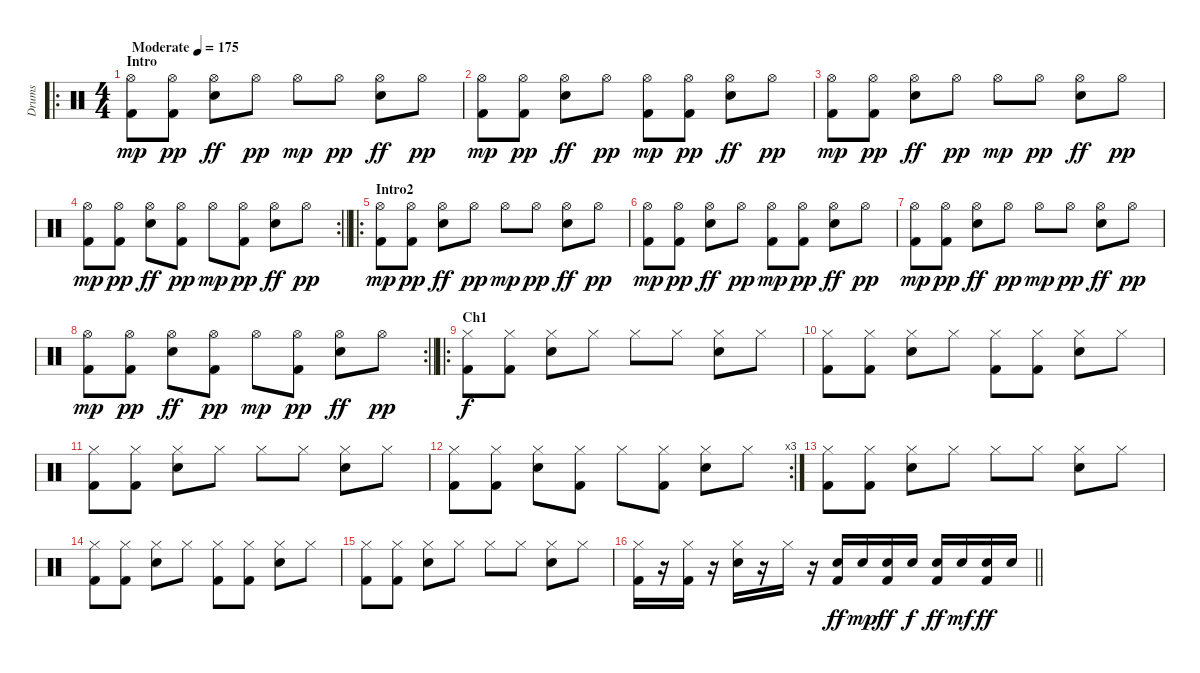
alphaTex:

\track ("Drums" "Drums") {instrument percussion}
\staff {score}
\articulation defaults
\ro
\ts (4 4)
\section ("" "Intro")
\tempo (175 "Moderate")
\clef neutral
\ks c
("Hi-Hat (open)" "Kick (hit) 2").8{dy mp} ("Hi-Hat (open)" "Kick (hit) 2").8{dy pp} ("Hi-Hat (open)" "Electric Snare (hit)").8{dy ff} "Hi-Hat (open)".8{dy pp} "Hi-Hat (open)".8{dy mp} "Hi-Hat (open)".8{dy pp} ("Hi-Hat (open)" "Electric Snare (hit)").8{dy ff} "Hi-Hat (open)".8{dy pp} |
("Hi-Hat (open)" "Kick (hit) 2").8{dy mp} ("Hi-Hat (open)" "Kick (hit) 2").8{dy pp} ("Hi-Hat (open)" "Electric Snare (hit)").8{dy ff} "Hi-Hat (open)".8{dy pp} ("Hi-Hat (open)" "Kick (hit) 2").8{dy mp} ("Hi-Hat (open)" "Kick (hit) 2").8{dy pp} ("Hi-Hat (open)" "Electric Snare (hit)").8{dy ff} "Hi-Hat (open)".8{dy pp} |
("Hi-Hat (open)" "Kick (hit) 2").8{dy mp} ("Hi-Hat (open)" "Kick (hit) 2").8{dy pp} ("Hi-Hat (open)" "Electric Snare (hit)").8{dy ff} "Hi-Hat (open)".8{dy pp} "Hi-Hat (open)".8{dy mp} "Hi-Hat (open)".8{dy pp} ("Hi-Hat (open)" "Electric Snare (hit)").8{dy ff} "Hi-Hat (open)".8{dy pp} |
\rc 2
\barLineRight lightlight
("Hi-Hat (open)" "Kick (hit) 2").8{dy mp} ("Hi-Hat (open)" "Kick (hit) 2").8{dy pp} ("Hi-Hat (open)" "Electric Snare (hit)").8{dy ff} ("Hi-Hat (open)" "Kick (hit) 2").8{dy pp} "Hi-Hat (open)".8{dy mp} ("Hi-Hat (open)" "Kick (hit) 2").8{dy pp} ("Hi-Hat (open)" "Electric Snare (hit)").8{dy ff} "Hi-Hat (open)".8{dy pp} |
\ro
\section ("" "Intro2")
("Hi-Hat (open)" "Kick (hit) 2").8{dy mp} ("Hi-Hat (open)" "Kick (hit) 2").8{dy pp} ("Hi-Hat (open)" "Electric Snare (hit)").8{dy ff} "Hi-Hat (open)".8{dy pp} "Hi-Hat (open)".8{dy mp} "Hi-Hat (open)".8{dy pp} ("Hi-Hat (open)" "Electric Snare (hit)").8{dy ff} "Hi-Hat (open)".8{dy pp} |
("Hi-Hat (open)" "Kick (hit) 2").8{dy mp} ("Hi-Hat (open)" "Kick (hit) 2").8{dy pp} ("Hi-Hat (open)" "Electric Snare (hit)").8{dy ff} "Hi-Hat (open)".8{dy pp} ("Hi-Hat (open)" "Kick (hit) 2").8{dy mp} ("Hi-Hat (open)" "Kick (hit) 2").8{dy pp} ("Hi-Hat (open)" "Electric Snare (hit)").8{dy ff} "Hi-Hat (open)".8{dy pp} |
("Hi-Hat (open)" "Kick (hit) 2").8{dy mp} ("Hi-Hat (open)" "Kick (hit) 2").8{dy pp} ("Hi-Hat (open)" "Electric Snare (hit)").8{dy ff} "Hi-Hat (open)".8{dy pp} "Hi-Hat (open)".8{dy mp} "Hi-Hat (open)".8{dy pp} ("Hi-Hat (open)" "Electric Snare (hit)").8{dy ff} "Hi-Hat (open)".8{dy pp} |
\rc 2
\barLineRight lightlight
("Hi-Hat (open)" "Kick (hit) 2").8{dy mp} ("Hi-Hat (open)" "Kick (hit) 2").8{dy pp} ("Hi-Hat (open)" "Electric Snare (hit)").8{dy ff} ("Hi-Hat (open)" "Kick (hit) 2").8{dy pp} "Hi-Hat (open)".8{dy mp} ("Hi-Hat (open)" "Kick (hit) 2").8{dy pp} ("Hi-Hat (open)" "Electric Snare (hit)").8{dy ff} "Hi-Hat (open)".8{dy pp} |
\ro
\section ("" "Ch1")
("Hi-Hat (closed)" "Kick (hit) 2").8{dy f} ("Hi-Hat (closed)" "Kick (hit) 2").8 ("Hi-Hat (closed)" "Electric Snare (hit)").8 "Hi-Hat (closed)".8 "Hi-Hat (closed)".8 "Hi-Hat (closed)".8 ("Hi-Hat (closed)" "Electric Snare (hit)").8 "Hi-Hat (closed)".8 |
("Hi-Hat (closed)" "Kick (hit) 2").8 ("Hi-Hat (closed)" "Kick (hit) 2").8 ("Hi-Hat (closed)" "Electric Snare (hit)").8 "Hi-Hat (closed)".8 ("Hi-Hat (closed)" "Kick (hit) 2").8 ("Hi-Hat (closed)" "Kick (hit) 2").8 ("Hi-Hat (closed)" "Electric Snare (hit)").8 "Hi-Hat (closed)".8 |
("Hi-Hat (closed)" "Kick (hit) 2").8 ("Hi-Hat (closed)" "Kick (hit) 2").8 ("Hi-Hat (closed)" "Electric Snare (hit)").8 "Hi-Hat (closed)".8 "Hi-Hat (closed)".8 "Hi-Hat (closed)".8 ("Hi-Hat (closed)" "Electric Snare (hit)").8 "Hi-Hat (closed)".8 |
\rc 3
("Hi-Hat (closed)" "Kick (hit) 2").8 ("Hi-Hat (closed)" "Kick (hit) 2").8 ("Hi-Hat (closed)" "Electric Snare (hit)").8 ("Hi-Hat (closed)" "Kick (hit) 2").8 "Hi-Hat (closed)".8 ("Hi-Hat (closed)" "Kick (hit) 2").8 ("Hi-Hat (closed)" "Electric Snare (hit)").8 "Hi-Hat (closed)".8 |
("Hi-Hat (closed)" "Kick (hit) 2").8 ("Hi-Hat (closed)" "Kick (hit) 2").8 ("Hi-Hat (closed)" "Electric Snare (hit)").8 "Hi-Hat (closed)".8 "Hi-Hat (closed)".8 "Hi-Hat (closed)".8 ("Hi-Hat (closed)" "Electric Snare (hit)").8 "Hi-Hat (closed)".8 |
("Hi-Hat (closed)" "Kick (hit) 2").8 ("Hi-Hat (closed)" "Kick (hit) 2").8 ("Hi-Hat (closed)" "Electric Snare (hit)").8 "Hi-Hat (closed)".8 ("Hi-Hat (closed)" "Kick (hit) 2").8 ("Hi-Hat (closed)" "Kick (hit) 2").8 ("Hi-Hat (closed)" "Electric Snare (hit)").8 "Hi-Hat (closed)".8 |
("Hi-Hat (closed)" "Kick (hit) 2").8 ("Hi-Hat (closed)" "Kick (hit) 2").8 ("Hi-Hat (closed)" "Electric Snare (hit)").8 "Hi-Hat (closed)".8 "Hi-Hat (closed)".8 "Hi-Hat (closed)".8 ("Hi-Hat (closed)" "Electric Snare (hit)").8 "Hi-Hat (closed)".8 |
\barLineRight lightlight
("Hi-Hat (closed)" "Kick (hit) 2").16 r.16 ("Hi-Hat (closed)" "Kick (hit) 2").16 r.16 ("Hi-Hat (closed)" "Electric Snare (hit)").16 r.16 "Hi-Hat (closed)".16 r.16 ("Electric Snare (hit)" "Kick (hit) 2").16{dy ff} "Electric Snare (hit)".16{dy mp} ("Electric Snare (hit)" "Kick (hit) 2").16{dy ff} "Electric Snare (hit)".16{dy f} ("Electric Snare (hit)" "Kick (hit) 2").16{dy ff} "Electric Snare (hit)".16{dy mf} ("Electric Snare (hit)" "Kick (hit) 2").16{dy ff} "Electric Snare (hit)".16
